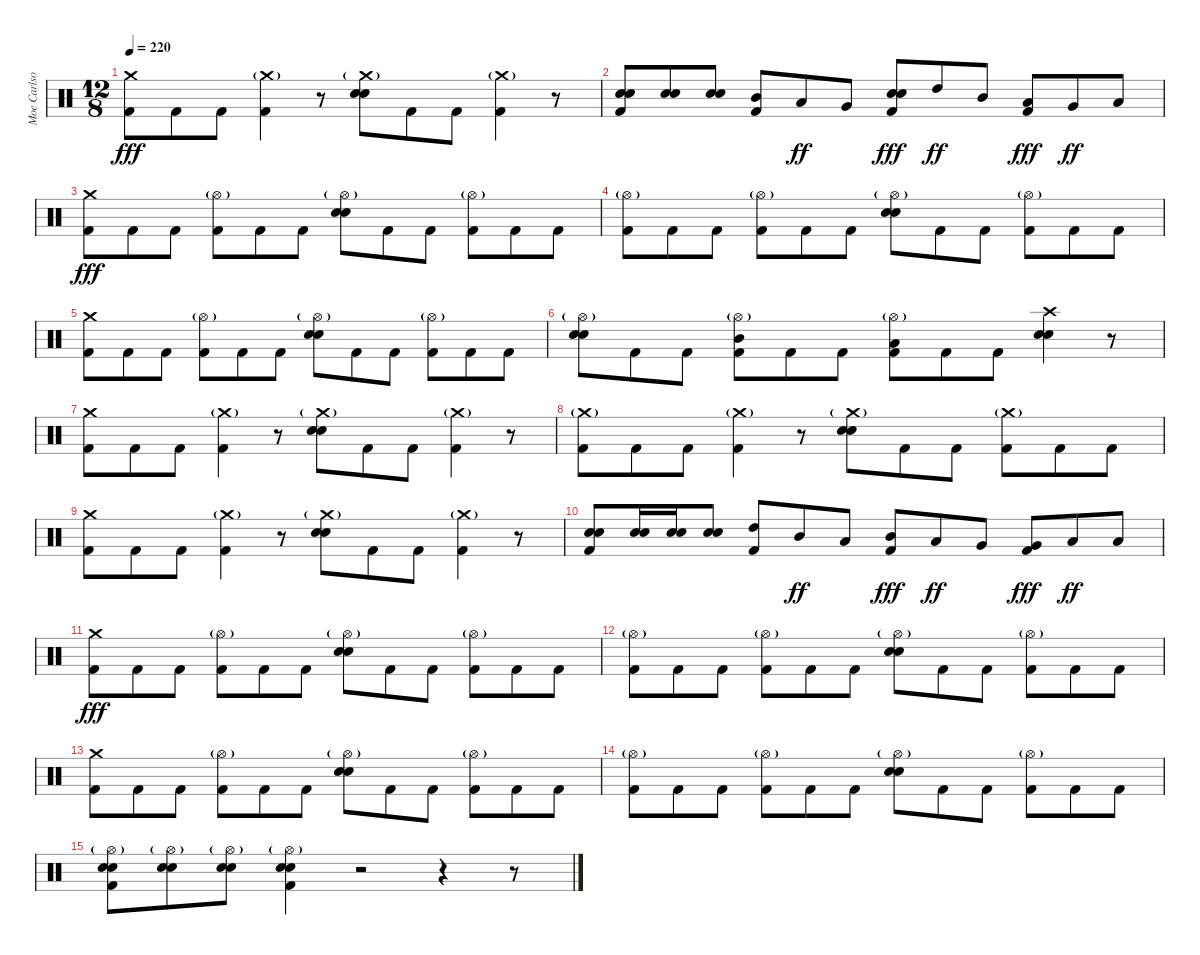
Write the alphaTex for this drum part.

\track ("Moe Carlson" "Moe Carlso") {instrument percussion}
\staff {score}
\articulation defaults
\ts (12 8)
\tempo 220
\clef neutral
\ks c
("Crash medium (hit)" "Kick (hit) 2").8{dy fff} "Kick (hit) 2".8 "Kick (hit) 2".8 ("Crash medium (hit)"{g} "Kick (hit) 2").4 r.8 ("Crash medium (hit)"{g} "Snare (hit) 2" "Electric Snare (hit)").8 "Kick (hit) 2".8 "Kick (hit) 2".8 ("Crash medium (hit)"{g} "Kick (hit) 2").4 r.8 |
("Snare (hit) 2" "Electric Snare (hit)" "Kick (hit) 2").8 ("Snare (hit) 2" "Electric Snare (hit)").8 ("Snare (hit) 2" "Electric Snare (hit)").8 ("Mid Tom (hit)" "Kick (hit) 2").8 "Low Tom (hit)".8{dy ff} "Very Low Tom (hit)".8 ("Snare (hit) 2" "Electric Snare (hit)" "Kick (hit) 2").8{dy fff} "High Tom (hit)".8{dy ff} "Mid Tom (hit)".8 ("Low Tom (hit)" "Kick (hit) 2").8{dy fff} "Very Low Tom (hit)".8{dy ff} "Low Floor Tom (hit)".8 |
("Crash medium (hit)" "Kick (hit) 2").8{dy fff} "Kick (hit) 2".8 "Kick (hit) 2".8 ("Hi-Hat (open)"{g} "Kick (hit) 2").8 "Kick (hit) 2".8 "Kick (hit) 2".8 ("Hi-Hat (open)"{g} "Snare (hit) 2" "Electric Snare (hit)").8 "Kick (hit) 2".8 "Kick (hit) 2".8 ("Hi-Hat (open)"{g} "Kick (hit) 2").8 "Kick (hit) 2".8 "Kick (hit) 2".8 |
("Hi-Hat (open)"{g} "Kick (hit) 2").8 "Kick (hit) 2".8 "Kick (hit) 2".8 ("Hi-Hat (open)"{g} "Kick (hit) 2").8 "Kick (hit) 2".8 "Kick (hit) 2".8 ("Hi-Hat (open)"{g} "Snare (hit) 2" "Electric Snare (hit)").8 "Kick (hit) 2".8 "Kick (hit) 2".8 ("Hi-Hat (open)"{g} "Kick (hit) 2").8 "Kick (hit) 2".8 "Kick (hit) 2".8 |
("Crash medium (hit)" "Kick (hit) 2").8 "Kick (hit) 2".8 "Kick (hit) 2".8 ("Hi-Hat (open)"{g} "Kick (hit) 2").8 "Kick (hit) 2".8 "Kick (hit) 2".8 ("Hi-Hat (open)"{g} "Snare (hit) 2" "Electric Snare (hit)").8 "Kick (hit) 2".8 "Kick (hit) 2".8 ("Hi-Hat (open)"{g} "Kick (hit) 2").8 "Kick (hit) 2".8 "Kick (hit) 2".8 |
("Hi-Hat (open)"{g} "Snare (hit) 2" "Electric Snare (hit)").8 "Kick (hit) 2".8 "Kick (hit) 2".8 ("Hi-Hat (open)"{g} "Mid Tom (hit)" "Kick (hit) 2").8 "Kick (hit) 2".8 "Kick (hit) 2".8 ("Hi-Hat (open)"{g} "Low Tom (hit)" "Kick (hit) 2").8 "Kick (hit) 2".8 "Kick (hit) 2".8 ("Crash high (hit)" "Snare (hit) 2" "Electric Snare (hit)").4 r.8 |
("Crash medium (hit)" "Kick (hit) 2").8 "Kick (hit) 2".8 "Kick (hit) 2".8 ("Crash medium (hit)"{g} "Kick (hit) 2").4 r.8 ("Crash medium (hit)"{g} "Snare (hit) 2" "Electric Snare (hit)").8 "Kick (hit) 2".8 "Kick (hit) 2".8 ("Crash medium (hit)"{g} "Kick (hit) 2").4 r.8 |
("Crash medium (hit)"{g} "Kick (hit) 2").8 "Kick (hit) 2".8 "Kick (hit) 2".8 ("Crash medium (hit)"{g} "Kick (hit) 2").4 r.8 ("Crash medium (hit)"{g} "Snare (hit) 2" "Electric Snare (hit)").8 "Kick (hit) 2".8 "Kick (hit) 2".8 ("Crash medium (hit)"{g} "Kick (hit) 2").8 "Kick (hit) 2".8 "Kick (hit) 2".8 |
("Crash medium (hit)" "Kick (hit) 2").8 "Kick (hit) 2".8 "Kick (hit) 2".8 ("Crash medium (hit)"{g} "Kick (hit) 2").4 r.8 ("Crash medium (hit)"{g} "Snare (hit) 2" "Electric Snare (hit)").8 "Kick (hit) 2".8 "Kick (hit) 2".8 ("Crash medium (hit)"{g} "Kick (hit) 2").4 r.8 |
("Snare (hit) 2" "Electric Snare (hit)" "Kick (hit) 2").8 ("Snare (hit) 2" "Electric Snare (hit)").16 ("Snare (hit) 2" "Electric Snare (hit)").16 ("Snare (hit) 2" "Electric Snare (hit)").8 ("High Tom (hit)" "Kick (hit) 2").8 "Mid Tom (hit)".8{dy ff} "Low Tom (hit)".8 ("Mid Tom (hit)" "Kick (hit) 2").8{dy fff} "Low Tom (hit)".8{dy ff} "Very Low Tom (hit)".8 ("Very Low Tom (hit)" "Kick (hit) 2").8{dy fff} "Low Floor Tom (hit)".8{dy ff} "Low Floor Tom (hit)".8 |
("Crash medium (hit)" "Kick (hit) 2").8{dy fff} "Kick (hit) 2".8 "Kick (hit) 2".8 ("Hi-Hat (open)"{g} "Kick (hit) 2").8 "Kick (hit) 2".8 "Kick (hit) 2".8 ("Hi-Hat (open)"{g} "Snare (hit) 2" "Electric Snare (hit)").8 "Kick (hit) 2".8 "Kick (hit) 2".8 ("Hi-Hat (open)"{g} "Kick (hit) 2").8 "Kick (hit) 2".8 "Kick (hit) 2".8 |
("Hi-Hat (open)"{g} "Kick (hit) 2").8 "Kick (hit) 2".8 "Kick (hit) 2".8 ("Hi-Hat (open)"{g} "Kick (hit) 2").8 "Kick (hit) 2".8 "Kick (hit) 2".8 ("Hi-Hat (open)"{g} "Snare (hit) 2" "Electric Snare (hit)").8 "Kick (hit) 2".8 "Kick (hit) 2".8 ("Hi-Hat (open)"{g} "Kick (hit) 2").8 "Kick (hit) 2".8 "Kick (hit) 2".8 |
("Crash medium (hit)" "Kick (hit) 2").8 "Kick (hit) 2".8 "Kick (hit) 2".8 ("Hi-Hat (open)"{g} "Kick (hit) 2").8 "Kick (hit) 2".8 "Kick (hit) 2".8 ("Hi-Hat (open)"{g} "Snare (hit) 2" "Electric Snare (hit)").8 "Kick (hit) 2".8 "Kick (hit) 2".8 ("Hi-Hat (open)"{g} "Kick (hit) 2").8 "Kick (hit) 2".8 "Kick (hit) 2".8 |
("Hi-Hat (open)"{g} "Kick (hit) 2").8 "Kick (hit) 2".8 "Kick (hit) 2".8 ("Hi-Hat (open)"{g} "Kick (hit) 2").8 "Kick (hit) 2".8 "Kick (hit) 2".8 ("Hi-Hat (open)"{g} "Snare (hit) 2" "Electric Snare (hit)").8 "Kick (hit) 2".8 "Kick (hit) 2".8 ("Hi-Hat (open)"{g} "Kick (hit) 2").8 "Kick (hit) 2".8 "Kick (hit) 2".8 |
("Hi-Hat (open)"{g} "Snare (hit) 2" "Electric Snare (hit)" "Kick (hit) 2").8 ("Hi-Hat (open)"{g} "Snare (hit) 2" "Electric Snare (hit)").8 ("Hi-Hat (open)"{g} "Snare (hit) 2" "Electric Snare (hit)").8 ("Hi-Hat (open)"{g} "Snare (hit) 2" "Electric Snare (hit)" "Kick (hit) 2").4 r.2 r.4 r.8
